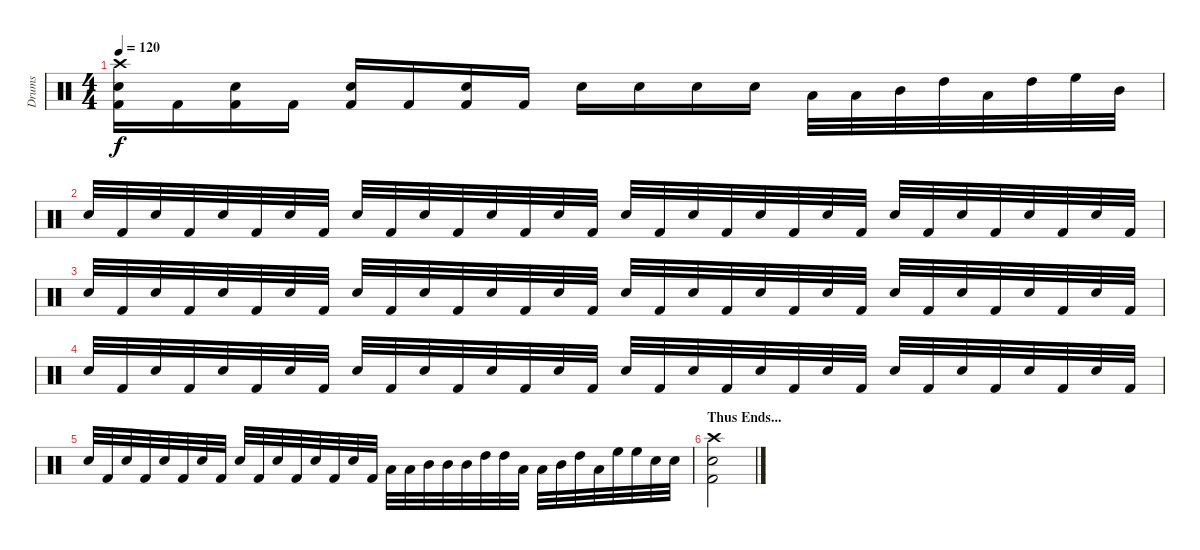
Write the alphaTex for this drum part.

\track ("Drums" "Drums") {instrument percussion}
\staff {score}
\articulation defaults
\ts (4 4)
\tempo 120
\clef neutral
\ks c
("Kick (hit) 2" "Snare (hit) 2" "Crash high (hit)").16{dy f} "Kick (hit) 2".16 ("Kick (hit) 2" "Snare (hit) 2").16 "Kick (hit) 2".16 ("Kick (hit) 2" "Snare (hit) 2").16 "Kick (hit) 2".16 ("Kick (hit) 2" "Snare (hit) 2").16 "Kick (hit) 2".16 "Snare (hit) 2".16 "Snare (hit) 2".16 "Snare (hit) 2".16 "Snare (hit) 2".16 "Low Tom (hit)".32 "Low Tom (hit)".32 "Mid Tom (hit)".32 "High Tom (hit)".32 "Low Tom (hit)".32 "High Tom (hit)".32 "High Floor Tom (hit)".32 "Mid Tom (hit)".32 |
"Snare (hit) 2".32 "Kick (hit) 2".32 "Snare (hit) 2".32 "Kick (hit) 2".32 "Snare (hit) 2".32 "Kick (hit) 2".32 "Snare (hit) 2".32 "Kick (hit) 2".32 "Snare (hit) 2".32 "Kick (hit) 2".32 "Snare (hit) 2".32 "Kick (hit) 2".32 "Snare (hit) 2".32 "Kick (hit) 2".32 "Snare (hit) 2".32 "Kick (hit) 2".32 "Snare (hit) 2".32 "Kick (hit) 2".32 "Snare (hit) 2".32 "Kick (hit) 2".32 "Snare (hit) 2".32 "Kick (hit) 2".32 "Snare (hit) 2".32 "Kick (hit) 2".32 "Snare (hit) 2".32 "Kick (hit) 2".32 "Snare (hit) 2".32 "Kick (hit) 2".32 "Snare (hit) 2".32 "Kick (hit) 2".32 "Snare (hit) 2".32 "Kick (hit) 2".32 |
"Snare (hit) 2".32 "Kick (hit) 2".32 "Snare (hit) 2".32 "Kick (hit) 2".32 "Snare (hit) 2".32 "Kick (hit) 2".32 "Snare (hit) 2".32 "Kick (hit) 2".32 "Snare (hit) 2".32 "Kick (hit) 2".32 "Snare (hit) 2".32 "Kick (hit) 2".32 "Snare (hit) 2".32 "Kick (hit) 2".32 "Snare (hit) 2".32 "Kick (hit) 2".32 "Snare (hit) 2".32 "Kick (hit) 2".32 "Snare (hit) 2".32 "Kick (hit) 2".32 "Snare (hit) 2".32 "Kick (hit) 2".32 "Snare (hit) 2".32 "Kick (hit) 2".32 "Snare (hit) 2".32 "Kick (hit) 2".32 "Snare (hit) 2".32 "Kick (hit) 2".32 "Snare (hit) 2".32 "Kick (hit) 2".32 "Snare (hit) 2".32 "Kick (hit) 2".32 |
"Snare (hit) 2".32 "Kick (hit) 2".32 "Snare (hit) 2".32 "Kick (hit) 2".32 "Snare (hit) 2".32 "Kick (hit) 2".32 "Snare (hit) 2".32 "Kick (hit) 2".32 "Snare (hit) 2".32 "Kick (hit) 2".32 "Snare (hit) 2".32 "Kick (hit) 2".32 "Snare (hit) 2".32 "Kick (hit) 2".32 "Snare (hit) 2".32 "Kick (hit) 2".32 "Snare (hit) 2".32 "Kick (hit) 2".32 "Snare (hit) 2".32 "Kick (hit) 2".32 "Snare (hit) 2".32 "Kick (hit) 2".32 "Snare (hit) 2".32 "Kick (hit) 2".32 "Snare (hit) 2".32 "Kick (hit) 2".32 "Snare (hit) 2".32 "Kick (hit) 2".32 "Snare (hit) 2".32 "Kick (hit) 2".32 "Snare (hit) 2".32 "Kick (hit) 2".32 |
"Snare (hit) 2".32 "Kick (hit) 2".32 "Snare (hit) 2".32 "Kick (hit) 2".32 "Snare (hit) 2".32 "Kick (hit) 2".32 "Snare (hit) 2".32 "Kick (hit) 2".32 "Snare (hit) 2".32 "Kick (hit) 2".32 "Snare (hit) 2".32 "Kick (hit) 2".32 "Snare (hit) 2".32 "Kick (hit) 2".32 "Snare (hit) 2".32 "Kick (hit) 2".32 "Low Tom (hit)".32 "Low Tom (hit)".32 "Mid Tom (hit)".32 "Mid Tom (hit)".32 "Mid Tom (hit)".32 "High Tom (hit)".32 "High Tom (hit)".32 "Low Tom (hit)".32 "Low Tom (hit)".32 "Mid Tom (hit)".32 "High Tom (hit)".32 "Low Tom (hit)".32 "High Floor Tom (hit)".32 "High Floor Tom (hit)".32 "Snare (hit) 2".32 "Snare (hit) 2".32 |
\section ("" "Thus Ends...")
("Kick (hit) 2" "Snare (hit) 2" "Crash high (hit)").2
